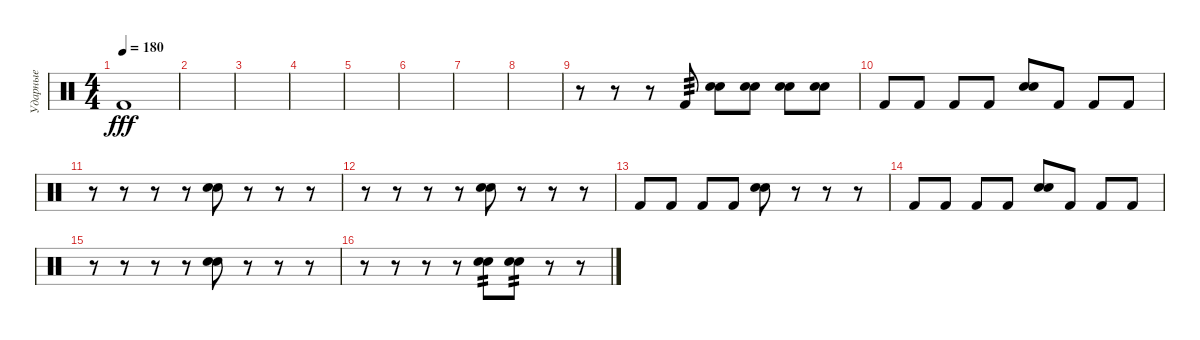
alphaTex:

\track ("Ударные" "Ударные") {instrument percussion}
\staff {score}
\articulation defaults
\ts (4 4)
\tempo 180
\clef neutral
\ks c "Kick (hit) 2".1{dy fff}
|
|
|
|
|
|
|
|
r.8 r.8 r.8 "Kick (hit) 2".8{tp 3} ("Snare (hit) 2" "Electric Snare (hit)").8 ("Snare (hit) 2" "Electric Snare (hit)").8 ("Snare (hit) 2" "Electric Snare (hit)").8 ("Snare (hit) 2" "Electric Snare (hit)").8 |
"Kick (hit) 2".8 "Kick (hit) 2".8 "Kick (hit) 2".8 "Kick (hit) 2".8 ("Snare (hit) 2" "Electric Snare (hit)").8 "Kick (hit) 2".8 "Kick (hit) 2".8 "Kick (hit) 2".8 |
r.8 r.8 r.8 r.8 ("Electric Snare (hit)" "Snare (hit) 2").8 r.8 r.8 r.8 |
r.8 r.8 r.8 r.8 ("Electric Snare (hit)" "Snare (hit) 2").8 r.8 r.8 r.8 |
"Kick (hit) 2".8 "Kick (hit) 2".8 "Kick (hit) 2".8 "Kick (hit) 2".8 ("Electric Snare (hit)" "Snare (hit) 2").8 r.8 r.8 r.8 |
"Kick (hit) 2".8 "Kick (hit) 2".8 "Kick (hit) 2".8 "Kick (hit) 2".8 ("Snare (hit) 2" "Electric Snare (hit)").8 "Kick (hit) 2".8 "Kick (hit) 2".8 "Kick (hit) 2".8 |
r.8 r.8 r.8 r.8 ("Electric Snare (hit)" "Snare (hit) 2").8 r.8 r.8 r.8 |
r.8 r.8 r.8 r.8 ("Electric Snare (hit)" "Snare (hit) 2").8{tp 2} ("Electric Snare (hit)" "Snare (hit) 2").8{tp 2} r.8 r.8
